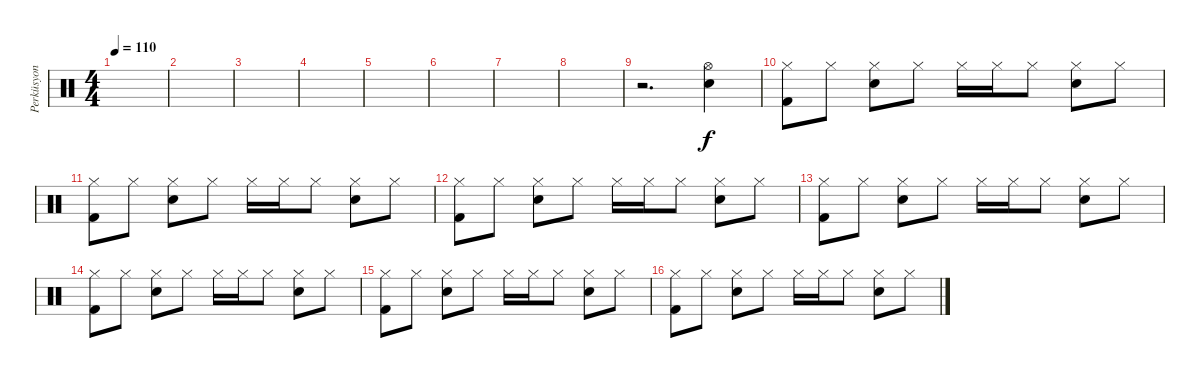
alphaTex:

\track ("Perküsyon" "Perküsyon") {instrument percussion}
\staff {score}
\articulation defaults
\ts (4 4)
\tempo 110
\clef neutral
\ks c
|
|
|
|
|
|
|
|
r.2{d} ("Snare (hit) 2" "Hi-Hat (open)").4 |
("Hi-Hat (closed)" "Kick (hit) 2").8 "Hi-Hat (closed)".8 ("Hi-Hat (closed)" "Snare (hit) 2").8 "Hi-Hat (closed)".8 "Hi-Hat (closed)".16 "Hi-Hat (closed)".16 "Hi-Hat (closed)".8 ("Hi-Hat (closed)" "Snare (hit) 2").8 "Hi-Hat (closed)".8 |
("Hi-Hat (closed)" "Kick (hit) 2").8 "Hi-Hat (closed)".8 ("Hi-Hat (closed)" "Snare (hit) 2").8 "Hi-Hat (closed)".8 "Hi-Hat (closed)".16 "Hi-Hat (closed)".16 "Hi-Hat (closed)".8 ("Hi-Hat (closed)" "Snare (hit) 2").8 "Hi-Hat (closed)".8 |
("Hi-Hat (closed)" "Kick (hit) 2").8 "Hi-Hat (closed)".8 ("Hi-Hat (closed)" "Snare (hit) 2").8 "Hi-Hat (closed)".8 "Hi-Hat (closed)".16 "Hi-Hat (closed)".16 "Hi-Hat (closed)".8 ("Hi-Hat (closed)" "Snare (hit) 2").8 "Hi-Hat (closed)".8 |
("Hi-Hat (closed)" "Kick (hit) 2").8 "Hi-Hat (closed)".8 ("Hi-Hat (closed)" "Snare (hit) 2").8 "Hi-Hat (closed)".8 "Hi-Hat (closed)".16 "Hi-Hat (closed)".16 "Hi-Hat (closed)".8 ("Hi-Hat (closed)" "Snare (hit) 2").8 "Hi-Hat (closed)".8 |
("Hi-Hat (closed)" "Kick (hit) 2").8 "Hi-Hat (closed)".8 ("Hi-Hat (closed)" "Snare (hit) 2").8 "Hi-Hat (closed)".8 "Hi-Hat (closed)".16 "Hi-Hat (closed)".16 "Hi-Hat (closed)".8 ("Hi-Hat (closed)" "Snare (hit) 2").8 "Hi-Hat (closed)".8 |
("Hi-Hat (closed)" "Kick (hit) 2").8 "Hi-Hat (closed)".8 ("Hi-Hat (closed)" "Snare (hit) 2").8 "Hi-Hat (closed)".8 "Hi-Hat (closed)".16 "Hi-Hat (closed)".16 "Hi-Hat (closed)".8 ("Hi-Hat (closed)" "Snare (hit) 2").8 "Hi-Hat (closed)".8 |
("Hi-Hat (closed)" "Kick (hit) 2").8 "Hi-Hat (closed)".8 ("Hi-Hat (closed)" "Snare (hit) 2").8 "Hi-Hat (closed)".8 "Hi-Hat (closed)".16 "Hi-Hat (closed)".16 "Hi-Hat (closed)".8 ("Hi-Hat (closed)" "Snare (hit) 2").8 "Hi-Hat (closed)".8
